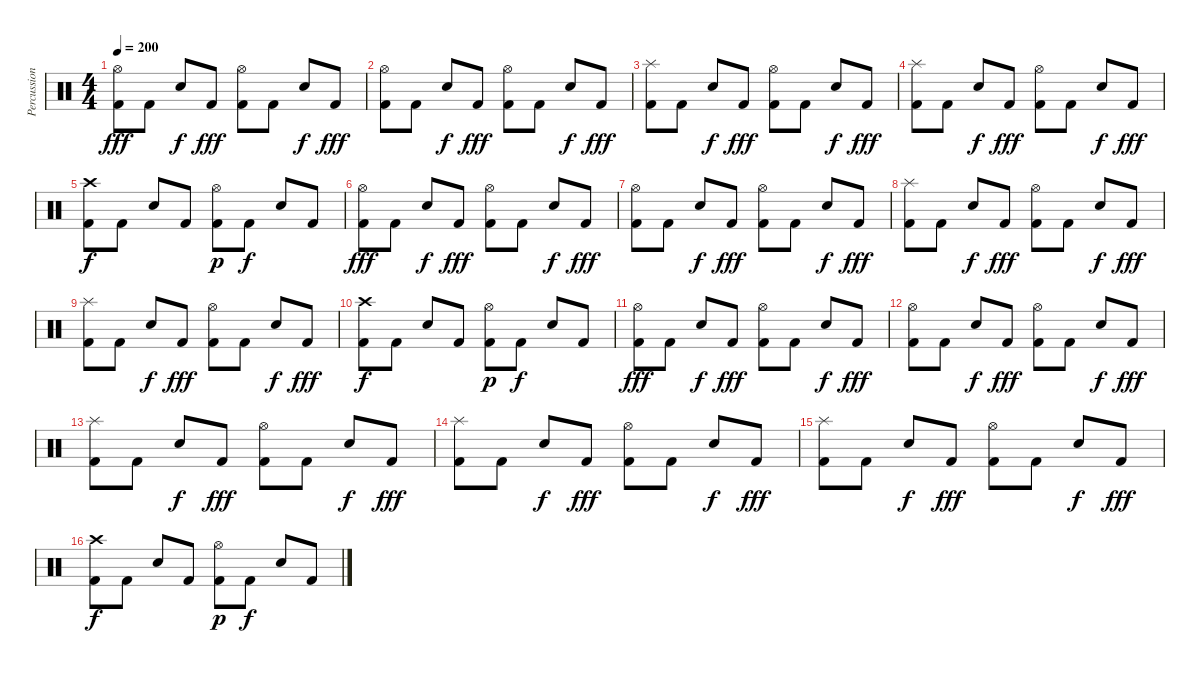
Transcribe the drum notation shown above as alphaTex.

\track ("Percussion" "Percussion") {instrument percussion}
\staff {score}
\articulation defaults
\ts (4 4)
\tempo 200
\clef neutral
\ks c
("Hi-Hat (open)" "Kick (hit) 2").8{dy fff} "Kick (hit) 2".8 "Electric Snare (hit)".8{dy f} "Kick (hit) 2".8{dy fff} ("Hi-Hat (open)" "Kick (hit) 2").8 "Kick (hit) 2".8 "Electric Snare (hit)".8{dy f} "Kick (hit) 2".8{dy fff} |
("Hi-Hat (open)" "Kick (hit) 2").8 "Kick (hit) 2".8 "Electric Snare (hit)".8{dy f} "Kick (hit) 2".8{dy fff} ("Hi-Hat (open)" "Kick (hit) 2").8 "Kick (hit) 2".8 "Electric Snare (hit)".8{dy f} "Kick (hit) 2".8{dy fff} |
("Splash (hit)" "Kick (hit) 2").8 "Kick (hit) 2".8 "Electric Snare (hit)".8{dy f} "Kick (hit) 2".8{dy fff} ("Hi-Hat (open)" "Kick (hit) 2").8 "Kick (hit) 2".8 "Electric Snare (hit)".8{dy f} "Kick (hit) 2".8{dy fff} |
("Splash (hit)" "Kick (hit) 2").8 "Kick (hit) 2".8 "Electric Snare (hit)".8{dy f} "Kick (hit) 2".8{dy fff} ("Hi-Hat (open)" "Kick (hit) 2").8 "Kick (hit) 2".8 "Electric Snare (hit)".8{dy f} "Kick (hit) 2".8{dy fff} |
("Crash high (hit)" "Kick (hit) 2").8{dy f} "Kick (hit) 2".8 "Electric Snare (hit)".8 "Kick (hit) 2".8 ("Hi-Hat (open)" "Kick (hit) 2").8{dy p} "Kick (hit) 2".8{dy f} "Electric Snare (hit)".8 "Kick (hit) 2".8 |
("Hi-Hat (open)" "Kick (hit) 2").8{dy fff} "Kick (hit) 2".8 "Electric Snare (hit)".8{dy f} "Kick (hit) 2".8{dy fff} ("Hi-Hat (open)" "Kick (hit) 2").8 "Kick (hit) 2".8 "Electric Snare (hit)".8{dy f} "Kick (hit) 2".8{dy fff} |
("Hi-Hat (open)" "Kick (hit) 2").8 "Kick (hit) 2".8 "Electric Snare (hit)".8{dy f} "Kick (hit) 2".8{dy fff} ("Hi-Hat (open)" "Kick (hit) 2").8 "Kick (hit) 2".8 "Electric Snare (hit)".8{dy f} "Kick (hit) 2".8{dy fff} |
("Splash (hit)" "Kick (hit) 2").8 "Kick (hit) 2".8 "Electric Snare (hit)".8{dy f} "Kick (hit) 2".8{dy fff} ("Hi-Hat (open)" "Kick (hit) 2").8 "Kick (hit) 2".8 "Electric Snare (hit)".8{dy f} "Kick (hit) 2".8{dy fff} |
("Splash (hit)" "Kick (hit) 2").8 "Kick (hit) 2".8 "Electric Snare (hit)".8{dy f} "Kick (hit) 2".8{dy fff} ("Hi-Hat (open)" "Kick (hit) 2").8 "Kick (hit) 2".8 "Electric Snare (hit)".8{dy f} "Kick (hit) 2".8{dy fff} |
("Crash high (hit)" "Kick (hit) 2").8{dy f} "Kick (hit) 2".8 "Electric Snare (hit)".8 "Kick (hit) 2".8 ("Hi-Hat (open)" "Kick (hit) 2").8{dy p} "Kick (hit) 2".8{dy f} "Electric Snare (hit)".8 "Kick (hit) 2".8 |
("Hi-Hat (open)" "Kick (hit) 2").8{dy fff} "Kick (hit) 2".8 "Electric Snare (hit)".8{dy f} "Kick (hit) 2".8{dy fff} ("Hi-Hat (open)" "Kick (hit) 2").8 "Kick (hit) 2".8 "Electric Snare (hit)".8{dy f} "Kick (hit) 2".8{dy fff} |
("Hi-Hat (open)" "Kick (hit) 2").8 "Kick (hit) 2".8 "Electric Snare (hit)".8{dy f} "Kick (hit) 2".8{dy fff} ("Hi-Hat (open)" "Kick (hit) 2").8 "Kick (hit) 2".8 "Electric Snare (hit)".8{dy f} "Kick (hit) 2".8{dy fff} |
("Splash (hit)" "Kick (hit) 2").8 "Kick (hit) 2".8 "Electric Snare (hit)".8{dy f} "Kick (hit) 2".8{dy fff} ("Hi-Hat (open)" "Kick (hit) 2").8 "Kick (hit) 2".8 "Electric Snare (hit)".8{dy f} "Kick (hit) 2".8{dy fff} |
("Splash (hit)" "Kick (hit) 2").8 "Kick (hit) 2".8 "Electric Snare (hit)".8{dy f} "Kick (hit) 2".8{dy fff} ("Hi-Hat (open)" "Kick (hit) 2").8 "Kick (hit) 2".8 "Electric Snare (hit)".8{dy f} "Kick (hit) 2".8{dy fff} |
("Splash (hit)" "Kick (hit) 2").8 "Kick (hit) 2".8 "Electric Snare (hit)".8{dy f} "Kick (hit) 2".8{dy fff} ("Hi-Hat (open)" "Kick (hit) 2").8 "Kick (hit) 2".8 "Electric Snare (hit)".8{dy f} "Kick (hit) 2".8{dy fff} |
("Crash high (hit)" "Kick (hit) 2").8{dy f} "Kick (hit) 2".8 "Electric Snare (hit)".8 "Kick (hit) 2".8 ("Hi-Hat (open)" "Kick (hit) 2").8{dy p} "Kick (hit) 2".8{dy f} "Electric Snare (hit)".8 "Kick (hit) 2".8
